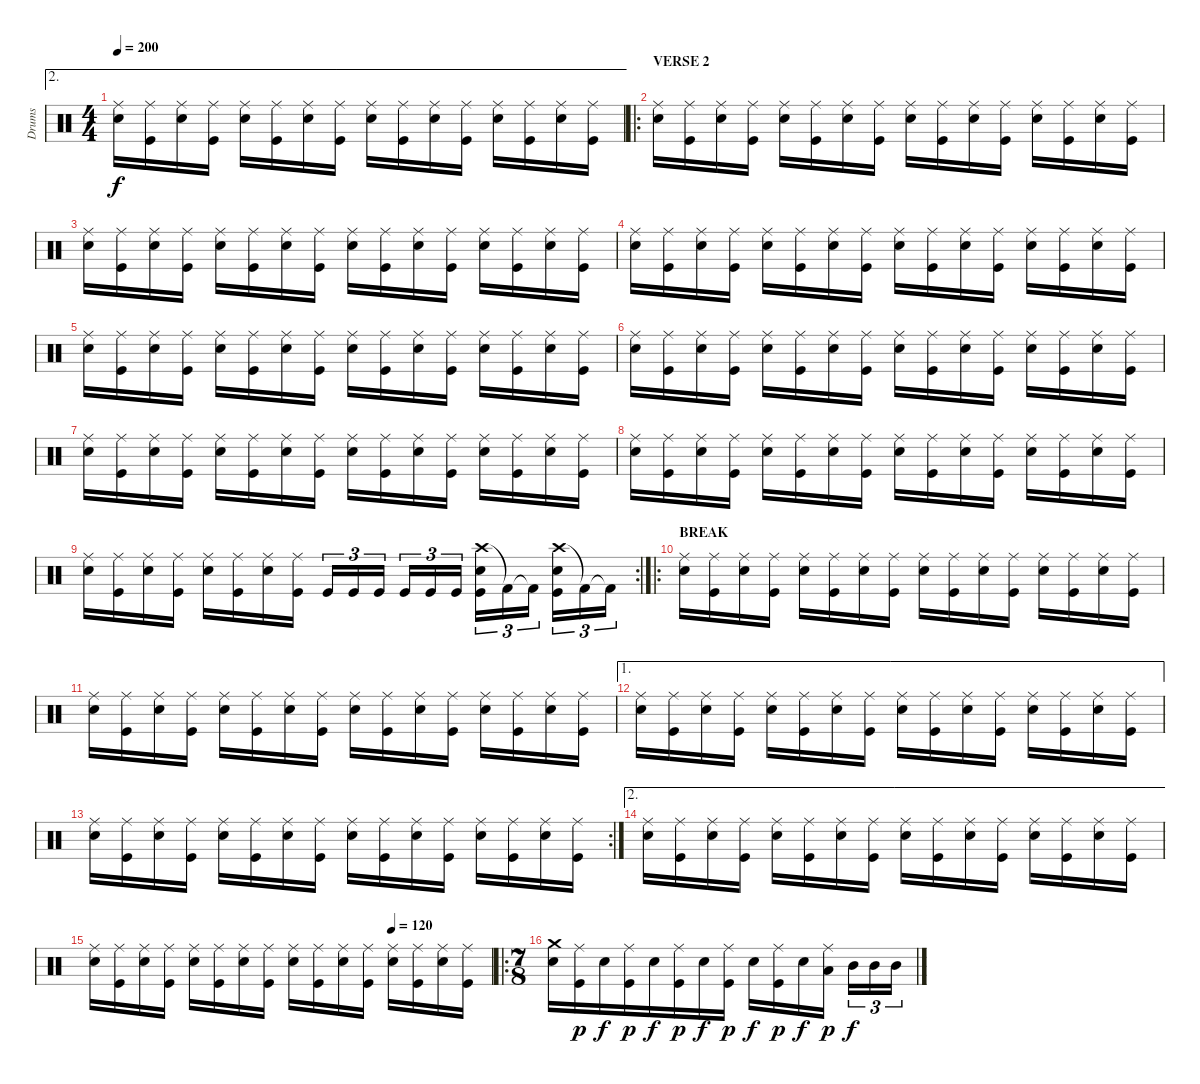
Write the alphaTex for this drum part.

\track ("Drums" "Drums") {instrument percussion}
\staff {score}
\articulation defaults
\ae 2
\ts (4 4)
\tempo 200
\clef neutral
\ks c
("Ride (middle)" "Snare (hit) 2").16{dy f} ("Ride (middle)" "Kick (hit)").16 ("Ride (middle)" "Snare (hit) 2").16 ("Ride (middle)" "Kick (hit)").16 ("Ride (middle)" "Snare (hit) 2").16 ("Ride (middle)" "Kick (hit)").16 ("Ride (middle)" "Snare (hit) 2").16 ("Ride (middle)" "Kick (hit)").16 ("Ride (middle)" "Snare (hit) 2").16 ("Ride (middle)" "Kick (hit)").16 ("Ride (middle)" "Snare (hit) 2").16 ("Ride (middle)" "Kick (hit)").16 ("Ride (middle)" "Snare (hit) 2").16 ("Ride (middle)" "Kick (hit)").16 ("Ride (middle)" "Snare (hit) 2").16 ("Ride (middle)" "Kick (hit)").16 |
\ro
\section ("" "VERSE 2")
("Ride (middle)" "Snare (hit) 2").16 ("Ride (middle)" "Kick (hit)").16 ("Ride (middle)" "Snare (hit) 2").16 ("Ride (middle)" "Kick (hit)").16 ("Ride (middle)" "Snare (hit) 2").16 ("Ride (middle)" "Kick (hit)").16 ("Ride (middle)" "Snare (hit) 2").16 ("Ride (middle)" "Kick (hit)").16 ("Ride (middle)" "Snare (hit) 2").16 ("Ride (middle)" "Kick (hit)").16 ("Ride (middle)" "Snare (hit) 2").16 ("Ride (middle)" "Kick (hit)").16 ("Ride (middle)" "Snare (hit) 2").16 ("Ride (middle)" "Kick (hit)").16 ("Ride (middle)" "Snare (hit) 2").16 ("Ride (middle)" "Kick (hit)").16 |
("Ride (middle)" "Snare (hit) 2").16 ("Ride (middle)" "Kick (hit)").16 ("Ride (middle)" "Snare (hit) 2").16 ("Ride (middle)" "Kick (hit)").16 ("Ride (middle)" "Snare (hit) 2").16 ("Ride (middle)" "Kick (hit)").16 ("Ride (middle)" "Snare (hit) 2").16 ("Ride (middle)" "Kick (hit)").16 ("Ride (middle)" "Snare (hit) 2").16 ("Ride (middle)" "Kick (hit)").16 ("Ride (middle)" "Snare (hit) 2").16 ("Ride (middle)" "Kick (hit)").16 ("Ride (middle)" "Snare (hit) 2").16 ("Ride (middle)" "Kick (hit)").16 ("Ride (middle)" "Snare (hit) 2").16 ("Ride (middle)" "Kick (hit)").16 |
("Ride (middle)" "Snare (hit) 2").16 ("Ride (middle)" "Kick (hit)").16 ("Ride (middle)" "Snare (hit) 2").16 ("Ride (middle)" "Kick (hit)").16 ("Ride (middle)" "Snare (hit) 2").16 ("Ride (middle)" "Kick (hit)").16 ("Ride (middle)" "Snare (hit) 2").16 ("Ride (middle)" "Kick (hit)").16 ("Ride (middle)" "Snare (hit) 2").16 ("Ride (middle)" "Kick (hit)").16 ("Ride (middle)" "Snare (hit) 2").16 ("Ride (middle)" "Kick (hit)").16 ("Ride (middle)" "Snare (hit) 2").16 ("Ride (middle)" "Kick (hit)").16 ("Ride (middle)" "Snare (hit) 2").16 ("Ride (middle)" "Kick (hit)").16 |
("Ride (middle)" "Snare (hit) 2").16 ("Ride (middle)" "Kick (hit)").16 ("Ride (middle)" "Snare (hit) 2").16 ("Ride (middle)" "Kick (hit)").16 ("Ride (middle)" "Snare (hit) 2").16 ("Ride (middle)" "Kick (hit)").16 ("Ride (middle)" "Snare (hit) 2").16 ("Ride (middle)" "Kick (hit)").16 ("Ride (middle)" "Snare (hit) 2").16 ("Ride (middle)" "Kick (hit)").16 ("Ride (middle)" "Snare (hit) 2").16 ("Ride (middle)" "Kick (hit)").16 ("Ride (middle)" "Snare (hit) 2").16 ("Ride (middle)" "Kick (hit)").16 ("Ride (middle)" "Snare (hit) 2").16 ("Ride (middle)" "Kick (hit)").16 |
("Ride (middle)" "Snare (hit) 2").16 ("Ride (middle)" "Kick (hit)").16 ("Ride (middle)" "Snare (hit) 2").16 ("Ride (middle)" "Kick (hit)").16 ("Ride (middle)" "Snare (hit) 2").16 ("Ride (middle)" "Kick (hit)").16 ("Ride (middle)" "Snare (hit) 2").16 ("Ride (middle)" "Kick (hit)").16 ("Ride (middle)" "Snare (hit) 2").16 ("Ride (middle)" "Kick (hit)").16 ("Ride (middle)" "Snare (hit) 2").16 ("Ride (middle)" "Kick (hit)").16 ("Ride (middle)" "Snare (hit) 2").16 ("Ride (middle)" "Kick (hit)").16 ("Ride (middle)" "Snare (hit) 2").16 ("Ride (middle)" "Kick (hit)").16 |
("Ride (middle)" "Snare (hit) 2").16 ("Ride (middle)" "Kick (hit)").16 ("Ride (middle)" "Snare (hit) 2").16 ("Ride (middle)" "Kick (hit)").16 ("Ride (middle)" "Snare (hit) 2").16 ("Ride (middle)" "Kick (hit)").16 ("Ride (middle)" "Snare (hit) 2").16 ("Ride (middle)" "Kick (hit)").16 ("Ride (middle)" "Snare (hit) 2").16 ("Ride (middle)" "Kick (hit)").16 ("Ride (middle)" "Snare (hit) 2").16 ("Ride (middle)" "Kick (hit)").16 ("Ride (middle)" "Snare (hit) 2").16 ("Ride (middle)" "Kick (hit)").16 ("Ride (middle)" "Snare (hit) 2").16 ("Ride (middle)" "Kick (hit)").16 |
("Ride (middle)" "Snare (hit) 2").16 ("Ride (middle)" "Kick (hit)").16 ("Ride (middle)" "Snare (hit) 2").16 ("Ride (middle)" "Kick (hit)").16 ("Ride (middle)" "Snare (hit) 2").16 ("Ride (middle)" "Kick (hit)").16 ("Ride (middle)" "Snare (hit) 2").16 ("Ride (middle)" "Kick (hit)").16 ("Ride (middle)" "Snare (hit) 2").16 ("Ride (middle)" "Kick (hit)").16 ("Ride (middle)" "Snare (hit) 2").16 ("Ride (middle)" "Kick (hit)").16 ("Ride (middle)" "Snare (hit) 2").16 ("Ride (middle)" "Kick (hit)").16 ("Ride (middle)" "Snare (hit) 2").16 ("Ride (middle)" "Kick (hit)").16 |
\rc 2
("Ride (middle)" "Snare (hit) 2").16 ("Ride (middle)" "Kick (hit)").16 ("Ride (middle)" "Snare (hit) 2").16 ("Ride (middle)" "Kick (hit)").16 ("Ride (middle)" "Snare (hit) 2").16 ("Ride (middle)" "Kick (hit)").16 ("Ride (middle)" "Snare (hit) 2").16 ("Ride (middle)" "Kick (hit)").16 "Kick (hit)".16{tu (3 2)} "Kick (hit)".16{tu (3 2)} "Kick (hit)".16{tu (3 2)} "Kick (hit)".16{tu (3 2)} "Kick (hit)".16{tu (3 2)} "Kick (hit)".16{tu (3 2)} ("Crash high (hit)" "Snare (hit) 2" "Kick (hit)").16{tu (3 2)} "Kick (hit) 2"{t}.16{tu (3 2)} "Kick (hit) 2"{t}.16{tu (3 2)} ("Crash high (hit)" "Snare (hit) 2" "Kick (hit)").16{tu (3 2)} "Kick (hit) 2"{t}.16{tu (3 2)} "Kick (hit) 2"{t}.16{tu (3 2)} |
\ro
\section ("" "BREAK")
("Ride (middle)" "Snare (hit) 2").16 ("Ride (middle)" "Kick (hit)").16 ("Ride (middle)" "Snare (hit) 2").16 ("Ride (middle)" "Kick (hit)").16 ("Ride (middle)" "Snare (hit) 2").16 ("Ride (middle)" "Kick (hit)").16 ("Ride (middle)" "Snare (hit) 2").16 ("Ride (middle)" "Kick (hit)").16 ("Ride (middle)" "Snare (hit) 2").16 ("Ride (middle)" "Kick (hit)").16 ("Ride (middle)" "Snare (hit) 2").16 ("Ride (middle)" "Kick (hit)").16 ("Ride (middle)" "Snare (hit) 2").16 ("Ride (middle)" "Kick (hit)").16 ("Ride (middle)" "Snare (hit) 2").16 ("Ride (middle)" "Kick (hit)").16 |
("Ride (middle)" "Snare (hit) 2").16 ("Ride (middle)" "Kick (hit)").16 ("Ride (middle)" "Snare (hit) 2").16 ("Ride (middle)" "Kick (hit)").16 ("Ride (middle)" "Snare (hit) 2").16 ("Ride (middle)" "Kick (hit)").16 ("Ride (middle)" "Snare (hit) 2").16 ("Ride (middle)" "Kick (hit)").16 ("Ride (middle)" "Snare (hit) 2").16 ("Ride (middle)" "Kick (hit)").16 ("Ride (middle)" "Snare (hit) 2").16 ("Ride (middle)" "Kick (hit)").16 ("Ride (middle)" "Snare (hit) 2").16 ("Ride (middle)" "Kick (hit)").16 ("Ride (middle)" "Snare (hit) 2").16 ("Ride (middle)" "Kick (hit)").16 |
\ae 1
("Ride (middle)" "Snare (hit) 2").16 ("Ride (middle)" "Kick (hit)").16 ("Ride (middle)" "Snare (hit) 2").16 ("Ride (middle)" "Kick (hit)").16 ("Ride (middle)" "Snare (hit) 2").16 ("Ride (middle)" "Kick (hit)").16 ("Ride (middle)" "Snare (hit) 2").16 ("Ride (middle)" "Kick (hit)").16 ("Ride (middle)" "Snare (hit) 2").16 ("Ride (middle)" "Kick (hit)").16 ("Ride (middle)" "Snare (hit) 2").16 ("Ride (middle)" "Kick (hit)").16 ("Ride (middle)" "Snare (hit) 2").16 ("Ride (middle)" "Kick (hit)").16 ("Ride (middle)" "Snare (hit) 2").16 ("Ride (middle)" "Kick (hit)").16 |
\rc 2
("Ride (middle)" "Snare (hit) 2").16 ("Ride (middle)" "Kick (hit)").16 ("Ride (middle)" "Snare (hit) 2").16 ("Ride (middle)" "Kick (hit)").16 ("Ride (middle)" "Snare (hit) 2").16 ("Ride (middle)" "Kick (hit)").16 ("Ride (middle)" "Snare (hit) 2").16 ("Ride (middle)" "Kick (hit)").16 ("Ride (middle)" "Snare (hit) 2").16 ("Ride (middle)" "Kick (hit)").16 ("Ride (middle)" "Snare (hit) 2").16 ("Ride (middle)" "Kick (hit)").16 ("Ride (middle)" "Snare (hit) 2").16 ("Ride (middle)" "Kick (hit)").16 ("Ride (middle)" "Snare (hit) 2").16 ("Ride (middle)" "Kick (hit)").16 |
\ae 2
("Ride (middle)" "Snare (hit) 2").16 ("Ride (middle)" "Kick (hit)").16 ("Ride (middle)" "Snare (hit) 2").16 ("Ride (middle)" "Kick (hit)").16 ("Ride (middle)" "Snare (hit) 2").16 ("Ride (middle)" "Kick (hit)").16 ("Ride (middle)" "Snare (hit) 2").16 ("Ride (middle)" "Kick (hit)").16 ("Ride (middle)" "Snare (hit) 2").16 ("Ride (middle)" "Kick (hit)").16 ("Ride (middle)" "Snare (hit) 2").16 ("Ride (middle)" "Kick (hit)").16 ("Ride (middle)" "Snare (hit) 2").16 ("Ride (middle)" "Kick (hit)").16 ("Ride (middle)" "Snare (hit) 2").16 ("Ride (middle)" "Kick (hit)").16 |
\tempo (120 0.75)
("Ride (middle)" "Snare (hit) 2").16 ("Ride (middle)" "Kick (hit)").16 ("Ride (middle)" "Snare (hit) 2").16 ("Ride (middle)" "Kick (hit)").16 ("Ride (middle)" "Snare (hit) 2").16 ("Ride (middle)" "Kick (hit)").16 ("Ride (middle)" "Snare (hit) 2").16 ("Ride (middle)" "Kick (hit)").16 ("Ride (middle)" "Snare (hit) 2").16 ("Ride (middle)" "Kick (hit)").16 ("Ride (middle)" "Snare (hit) 2").16 ("Ride (middle)" "Kick (hit)").16 ("Ride (middle)" "Snare (hit) 2").16 ("Ride (middle)" "Kick (hit)").16 ("Ride (middle)" "Snare (hit) 2").16 ("Ride (middle)" "Kick (hit)").16 |
\ro
\ts (7 8)
("Crash medium (hit)" "Snare (hit) 2").16 ("Ride (middle)" "Kick (hit)").16{dy p} "Snare (hit) 2".16{dy f} ("Ride (middle)" "Kick (hit)").16{dy p} "Snare (hit) 2".16{dy f} ("Ride (middle)" "Kick (hit)").16{dy p} "Snare (hit) 2".16{dy f} ("Ride (middle)" "Kick (hit)").16{dy p} "Snare (hit) 2".16{dy f} ("Ride (middle)" "Kick (hit)").16{dy p} "Snare (hit) 2".16{dy f} ("Ride (middle)" "Low Tom (hit)").16{dy p} "Mid Tom (hit)".16{tu (3 2) dy f} "Mid Tom (hit)".16{tu (3 2)} "Mid Tom (hit)".16{tu (3 2)}
